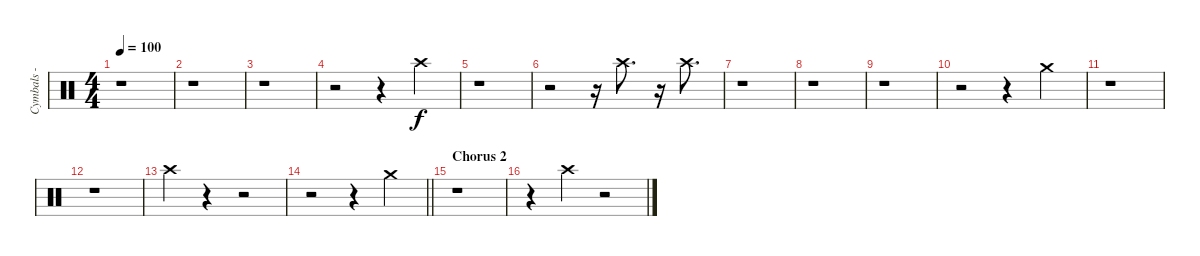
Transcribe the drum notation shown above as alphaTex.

\track ("Cymbals - crash - center" "Cymbals - ") {instrument percussion}
\staff {score}
\articulation defaults
\ts (4 4)
\tempo 100
\clef neutral
\ks c
r.1{dy f} |
r.1 |
r.1 |
r.2 r.4{volume 10} "Crash high (hit)".4 |
r.1 |
r.2 r.16 "Crash high (hit)".8{d} r.16 "Crash high (hit)".8{d} |
r.1 |
r.1 |
r.1 |
r.2 r.4 "Crash medium (hit)".4 |
r.1 |
r.1 |
"Crash high (hit)".4 r.4 r.2 |
\barLineRight lightlight
r.2 r.4 "Crash medium (hit)".4 |
\section ("" "Chorus 2")
r.1 |
r.4 "Crash high (hit)".4 r.2
